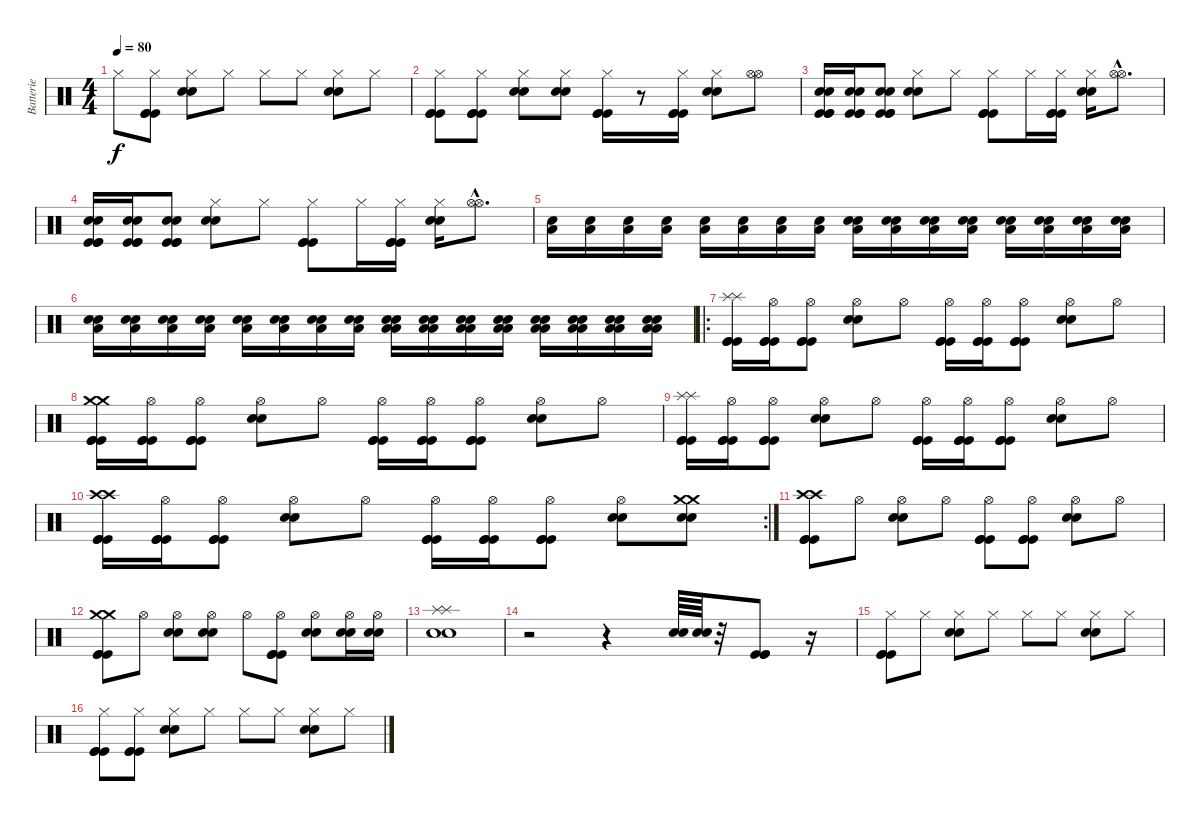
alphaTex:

\track ("Batterie" "Batterie") {instrument percussion}
\staff {score}
\articulation defaults
\ts (4 4)
\tempo 80
\clef neutral
\ks c "Hi-Hat (closed)".8{dy f}
("Hi-Hat (closed)" "Kick (hit)" "Kick (hit)" "Kick (hit)").8 ("Hi-Hat (closed)" "Snare (hit) 2" "Snare (hit) 2").8 "Hi-Hat (closed)".8 "Hi-Hat (closed)".8 "Hi-Hat (closed)".8 ("Hi-Hat (closed)" "Snare (hit) 2" "Snare (hit) 2").8 "Hi-Hat (closed)".8 |
("Hi-Hat (closed)" "Kick (hit)" "Kick (hit)" "Kick (hit)").8 ("Hi-Hat (closed)" "Kick (hit)" "Kick (hit)" "Kick (hit)").8 ("Hi-Hat (closed)" "Snare (hit) 2" "Snare (hit) 2").8 ("Hi-Hat (closed)" "Snare (hit) 2" "Snare (hit) 2").8 ("Hi-Hat (closed)" "Kick (hit)" "Kick (hit)" "Kick (hit)").16 r.8 ("Hi-Hat (closed)" "Kick (hit)" "Kick (hit)" "Kick (hit)").16 ("Hi-Hat (closed)" "Snare (hit) 2" "Snare (hit) 2").8 ("Hi-Hat (open)" "Hi-Hat (open)").8 |
("Kick (hit)" "Snare (hit) 2" "Kick (hit)" "Snare (hit) 2" "Kick (hit)").16 ("Kick (hit)" "Snare (hit) 2" "Kick (hit)" "Snare (hit) 2" "Kick (hit)").16 ("Kick (hit)" "Snare (hit) 2" "Kick (hit)" "Snare (hit) 2" "Kick (hit)").8 ("Snare (hit) 2" "Hi-Hat (closed)" "Snare (hit) 2").8 "Hi-Hat (closed)".8 ("Kick (hit)" "Hi-Hat (closed)" "Kick (hit)" "Kick (hit)").8 "Hi-Hat (closed)".16 ("Kick (hit)" "Hi-Hat (closed)" "Kick (hit)" "Kick (hit)").16 ("Snare (hit) 2" "Hi-Hat (closed)" "Snare (hit) 2").16 ("Hi-Hat (open)"{hac} "Hi-Hat (open)"{hac}).8{d} |
("Kick (hit)" "Snare (hit) 2" "Kick (hit)" "Kick (hit)" "Snare (hit) 2").16 ("Kick (hit)" "Snare (hit) 2" "Kick (hit)" "Kick (hit)" "Snare (hit) 2").16 ("Kick (hit)" "Snare (hit) 2" "Kick (hit)" "Kick (hit)" "Snare (hit) 2").8 ("Snare (hit) 2" "Hi-Hat (closed)" "Snare (hit) 2").8 "Hi-Hat (closed)".8 ("Kick (hit)" "Hi-Hat (closed)" "Kick (hit)" "Kick (hit)").8 "Hi-Hat (closed)".16 ("Kick (hit)" "Hi-Hat (closed)" "Kick (hit)" "Kick (hit)").16 ("Snare (hit) 2" "Hi-Hat (closed)" "Snare (hit) 2").16 ("Hi-Hat (open)"{hac} "Hi-Hat (open)"{hac}).8{d} |
("Snare (hit) 2" "Low Floor Tom (hit)").16 ("Snare (hit) 2" "Low Floor Tom (hit)").16 ("Snare (hit) 2" "Low Floor Tom (hit)").16 ("Snare (hit) 2" "Low Floor Tom (hit)").16 ("Snare (hit) 2" "Low Floor Tom (hit)").16 ("Snare (hit) 2" "Low Floor Tom (hit)").16 ("Snare (hit) 2" "Low Floor Tom (hit)").16 ("Snare (hit) 2" "Low Floor Tom (hit)").16 ("Snare (hit) 2" "Snare (hit) 2" "Low Floor Tom (hit)").16 ("Snare (hit) 2" "Snare (hit) 2" "Low Floor Tom (hit)").16 ("Snare (hit) 2" "Snare (hit) 2" "Low Floor Tom (hit)").16 ("Snare (hit) 2" "Snare (hit) 2" "Low Floor Tom (hit)").16 ("Snare (hit) 2" "Snare (hit) 2" "Low Floor Tom (hit)").16 ("Snare (hit) 2" "Snare (hit) 2" "Low Floor Tom (hit)").16 ("Snare (hit) 2" "Snare (hit) 2" "Low Floor Tom (hit)").16 ("Snare (hit) 2" "Snare (hit) 2" "Low Floor Tom (hit)").16 |
("Snare (hit) 2" "Snare (hit) 2" "Low Floor Tom (hit)").16 ("Snare (hit) 2" "Snare (hit) 2" "Low Floor Tom (hit)").16 ("Snare (hit) 2" "Snare (hit) 2" "Low Floor Tom (hit)").16 ("Snare (hit) 2" "Snare (hit) 2" "Low Floor Tom (hit)").16 ("Snare (hit) 2" "Snare (hit) 2" "Low Floor Tom (hit)").16 ("Snare (hit) 2" "Snare (hit) 2" "Low Floor Tom (hit)").16 ("Snare (hit) 2" "Snare (hit) 2" "Low Floor Tom (hit)").16 ("Snare (hit) 2" "Snare (hit) 2" "Low Floor Tom (hit)").16 ("Snare (hit) 2" "Snare (hit) 2" "Low Floor Tom (hit)" "Low Floor Tom (hit)").16 ("Snare (hit) 2" "Snare (hit) 2" "Low Floor Tom (hit)" "Low Floor Tom (hit)").16 ("Snare (hit) 2" "Snare (hit) 2" "Low Floor Tom (hit)" "Low Floor Tom (hit)").16 ("Snare (hit) 2" "Snare (hit) 2" "Low Floor Tom (hit)" "Low Floor Tom (hit)").16 ("Snare (hit) 2" "Snare (hit) 2" "Low Floor Tom (hit)" "Low Floor Tom (hit)").16 ("Snare (hit) 2" "Snare (hit) 2" "Low Floor Tom (hit)" "Low Floor Tom (hit)").16 ("Snare (hit) 2" "Snare (hit) 2" "Low Floor Tom (hit)" "Low Floor Tom (hit)").16 ("Snare (hit) 2" "Snare (hit) 2" "Low Floor Tom (hit)" "Low Floor Tom (hit)").16 |
\ro
("Splash (hit)" "Kick (hit)" "Kick (hit)" "Kick (hit)" "Splash (hit)").16 ("Kick (hit)" "Kick (hit)" "Kick (hit)" "Hi-Hat (open)").16 ("Kick (hit)" "Kick (hit)" "Hi-Hat (open)" "Kick (hit)").8 ("Snare (hit) 2" "Snare (hit) 2" "Hi-Hat (open)").8 "Hi-Hat (open)".8 ("Kick (hit)" "Kick (hit)" "Hi-Hat (open)" "Kick (hit)").16 ("Kick (hit)" "Hi-Hat (open)" "Kick (hit)" "Kick (hit)").16 ("Kick (hit)" "Kick (hit)" "Hi-Hat (open)" "Kick (hit)").8 ("Snare (hit) 2" "Hi-Hat (open)" "Snare (hit) 2").8 "Hi-Hat (open)".8 |
("Crash medium (hit)" "Kick (hit)" "Kick (hit)" "Kick (hit)" "Crash medium (hit)").16 ("Kick (hit)" "Kick (hit)" "Kick (hit)" "Hi-Hat (open)").16 ("Kick (hit)" "Kick (hit)" "Hi-Hat (open)" "Kick (hit)").8 ("Snare (hit) 2" "Snare (hit) 2" "Hi-Hat (open)").8 "Hi-Hat (open)".8 ("Kick (hit)" "Kick (hit)" "Hi-Hat (open)" "Kick (hit)").16 ("Kick (hit)" "Kick (hit)" "Kick (hit)" "Hi-Hat (open)").16 ("Kick (hit)" "Kick (hit)" "Hi-Hat (open)" "Kick (hit)").8 ("Snare (hit) 2" "Snare (hit) 2" "Hi-Hat (open)").8 "Hi-Hat (open)".8 |
("Splash (hit)" "Kick (hit)" "Kick (hit)" "Kick (hit)" "Splash (hit)").16 ("Kick (hit)" "Kick (hit)" "Kick (hit)" "Hi-Hat (open)").16 ("Kick (hit)" "Kick (hit)" "Hi-Hat (open)" "Kick (hit)").8 ("Snare (hit) 2" "Snare (hit) 2" "Hi-Hat (open)").8 "Hi-Hat (open)".8 ("Kick (hit)" "Kick (hit)" "Kick (hit)" "Hi-Hat (open)").16 ("Kick (hit)" "Hi-Hat (open)" "Kick (hit)" "Kick (hit)").16 ("Kick (hit)" "Kick (hit)" "Hi-Hat (open)" "Kick (hit)").8 ("Snare (hit) 2" "Snare (hit) 2" "Hi-Hat (open)").8 "Hi-Hat (open)".8 |
\rc 2
("Crash high (hit)" "Kick (hit)" "Kick (hit)" "Kick (hit)" "Crash high (hit)").16 ("Kick (hit)" "Kick (hit)" "Kick (hit)" "Hi-Hat (open)").16 ("Kick (hit)" "Kick (hit)" "Hi-Hat (open)" "Kick (hit)").8 ("Snare (hit) 2" "Snare (hit) 2" "Hi-Hat (open)").8 "Hi-Hat (open)".8 ("Kick (hit)" "Kick (hit)" "Hi-Hat (open)" "Kick (hit)").16 ("Kick (hit)" "Kick (hit)" "Kick (hit)" "Hi-Hat (open)").16 ("Kick (hit)" "Kick (hit)" "Hi-Hat (open)" "Kick (hit)").8 ("Snare (hit) 2" "Snare (hit) 2" "Hi-Hat (open)").8 ("Snare (hit) 2" "Snare (hit) 2" "Crash medium (hit)" "Crash medium (hit)").8 |
("Crash high (hit)" "Kick (hit)" "Kick (hit)" "Kick (hit)" "Crash high (hit)").8 "Hi-Hat (open)".8 ("Hi-Hat (open)" "Snare (hit) 2" "Snare (hit) 2").8 "Hi-Hat (open)".8 ("Hi-Hat (open)" "Kick (hit)" "Kick (hit)" "Kick (hit)").8 ("Hi-Hat (open)" "Kick (hit)" "Kick (hit)" "Kick (hit)").8 ("Hi-Hat (open)" "Snare (hit) 2" "Snare (hit) 2").8 "Hi-Hat (open)".8 |
("Crash medium (hit)" "Kick (hit)" "Kick (hit)" "Kick (hit)" "Crash medium (hit)").8 "Hi-Hat (open)".8 ("Hi-Hat (open)" "Snare (hit) 2" "Snare (hit) 2").8 ("Hi-Hat (open)" "Snare (hit) 2" "Snare (hit) 2").8 "Hi-Hat (open)".8 ("Hi-Hat (open)" "Kick (hit)" "Kick (hit)" "Kick (hit)").8 ("Hi-Hat (open)" "Snare (hit) 2" "Snare (hit) 2").8 ("Hi-Hat (open)" "Snare (hit) 2" "Snare (hit) 2").16 ("Hi-Hat (open)" "Snare (hit) 2" "Snare (hit) 2").16 |
("Splash (hit)" "Snare (hit) 2" "Snare (hit) 2" "Splash (hit)").1 |
r.2 r.4 ("Snare (hit) 2" "Snare (hit) 2").64 ("Snare (hit) 2" "Snare (hit) 2").64 r.32 ("Kick (hit)" "Kick (hit)" "Kick (hit)").8 r.16 |
("Hi-Hat (closed)" "Kick (hit)" "Kick (hit)" "Kick (hit)").8 "Hi-Hat (closed)".8 ("Hi-Hat (closed)" "Snare (hit) 2" "Snare (hit) 2").8 "Hi-Hat (closed)".8 "Hi-Hat (closed)".8 "Hi-Hat (closed)".8 ("Hi-Hat (closed)" "Snare (hit) 2" "Snare (hit) 2").8 "Hi-Hat (closed)".8 |
("Hi-Hat (closed)" "Kick (hit)" "Kick (hit)" "Kick (hit)").8 ("Hi-Hat (closed)" "Kick (hit)" "Kick (hit)" "Kick (hit)").8 ("Hi-Hat (closed)" "Snare (hit) 2" "Snare (hit) 2").8 "Hi-Hat (closed)".8 "Hi-Hat (closed)".8 "Hi-Hat (closed)".8 ("Hi-Hat (closed)" "Snare (hit) 2" "Snare (hit) 2").8 "Hi-Hat (closed)".8
